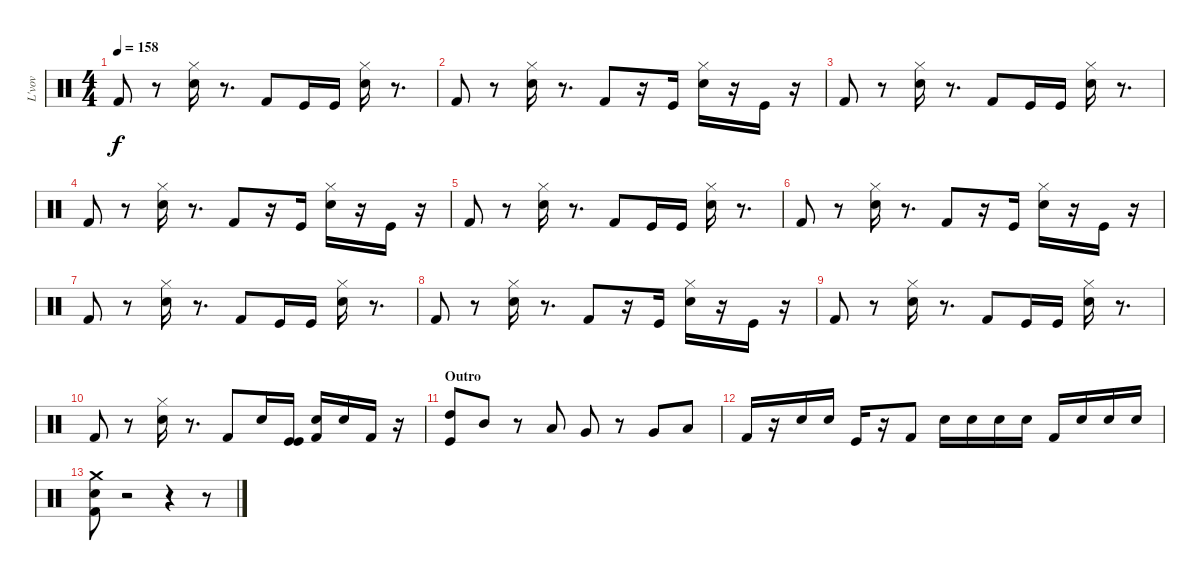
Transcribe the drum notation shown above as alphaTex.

\track ("L'vov " "L'vov ") {instrument percussion}
\staff {score}
\articulation defaults
\ts (4 4)
\tempo 158
\clef neutral
\ks c "Kick (hit) 2".8{dy f}
r.8 ("Snare (hit) 2" "Hi-Hat (closed)").16 r.8{d} "Kick (hit) 2".8 "Kick (hit)".16 "Kick (hit)".16 ("Snare (hit) 2" "Hi-Hat (closed)").16 r.8{d} |
"Kick (hit) 2".8 r.8 ("Snare (hit) 2" "Hi-Hat (closed)").16 r.8{d} "Kick (hit) 2".8 r.16 "Kick (hit)".16 ("Electric Snare (hit)" "Hi-Hat (closed)").16 r.16 "Kick (hit)".16 r.16 |
"Kick (hit) 2".8 r.8 ("Snare (hit) 2" "Hi-Hat (closed)").16 r.8{d} "Kick (hit) 2".8 "Kick (hit)".16 "Kick (hit)".16 ("Snare (hit) 2" "Hi-Hat (closed)").16 r.8{d} |
"Kick (hit) 2".8 r.8 ("Snare (hit) 2" "Hi-Hat (closed)").16 r.8{d} "Kick (hit) 2".8 r.16 "Kick (hit)".16 ("Electric Snare (hit)" "Hi-Hat (closed)").16 r.16 "Kick (hit)".16 r.16 |
"Kick (hit) 2".8 r.8 ("Snare (hit) 2" "Hi-Hat (closed)").16 r.8{d} "Kick (hit) 2".8 "Kick (hit)".16 "Kick (hit)".16 ("Snare (hit) 2" "Hi-Hat (closed)").16 r.8{d} |
"Kick (hit) 2".8 r.8 ("Snare (hit) 2" "Hi-Hat (closed)").16 r.8{d} "Kick (hit) 2".8 r.16 "Kick (hit)".16 ("Electric Snare (hit)" "Hi-Hat (closed)").16 r.16 "Kick (hit)".16 r.16 |
"Kick (hit) 2".8 r.8 ("Snare (hit) 2" "Hi-Hat (closed)").16 r.8{d} "Kick (hit) 2".8 "Kick (hit)".16 "Kick (hit)".16 ("Snare (hit) 2" "Hi-Hat (closed)").16 r.8{d} |
"Kick (hit) 2".8 r.8 ("Snare (hit) 2" "Hi-Hat (closed)").16 r.8{d} "Kick (hit) 2".8 r.16 "Kick (hit)".16 ("Electric Snare (hit)" "Hi-Hat (closed)").16 r.16 "Kick (hit)".16 r.16 |
"Kick (hit) 2".8 r.8 ("Snare (hit) 2" "Hi-Hat (closed)").16 r.8{d} "Kick (hit) 2".8 "Kick (hit)".16 "Kick (hit)".16 ("Snare (hit) 2" "Hi-Hat (closed)").16 r.8{d} |
"Kick (hit) 2".8 r.8 ("Snare (hit) 2" "Hi-Hat (closed)").16 r.8{d} "Kick (hit) 2".8 "Electric Snare (hit)".16 ("Kick (hit)" "Kick (hit)").16 ("Electric Snare (hit)" "Kick (hit) 2").16 "Electric Snare (hit)".16 "Kick (hit) 2".16 r.16 |
\section ("" "Outro")
("Kick (hit)" "High Tom (hit)").8 "Mid Tom (hit)".8 r.8 "Low Tom (hit)".8 "Very Low Tom (hit)".8 r.8 "Very Low Tom (hit)".8 "Low Floor Tom (hit)".8 |
"Kick (hit) 2".16 r.16 "Snare (hit) 2".16 "Snare (hit) 2".16 "Kick (hit)".16 r.16 "Kick (hit) 2".8 "Snare (hit) 2".16 "Electric Snare (hit)".16 "Electric Snare (hit)".16 "Electric Snare (hit)".16 "Kick (hit) 2".16 "Electric Snare (hit)".16 "Electric Snare (hit)".16 "Electric Snare (hit)".16 |
("Kick (hit) 2" "Electric Snare (hit)" "Crash medium (hit)").8 r.2 r.4 r.8
